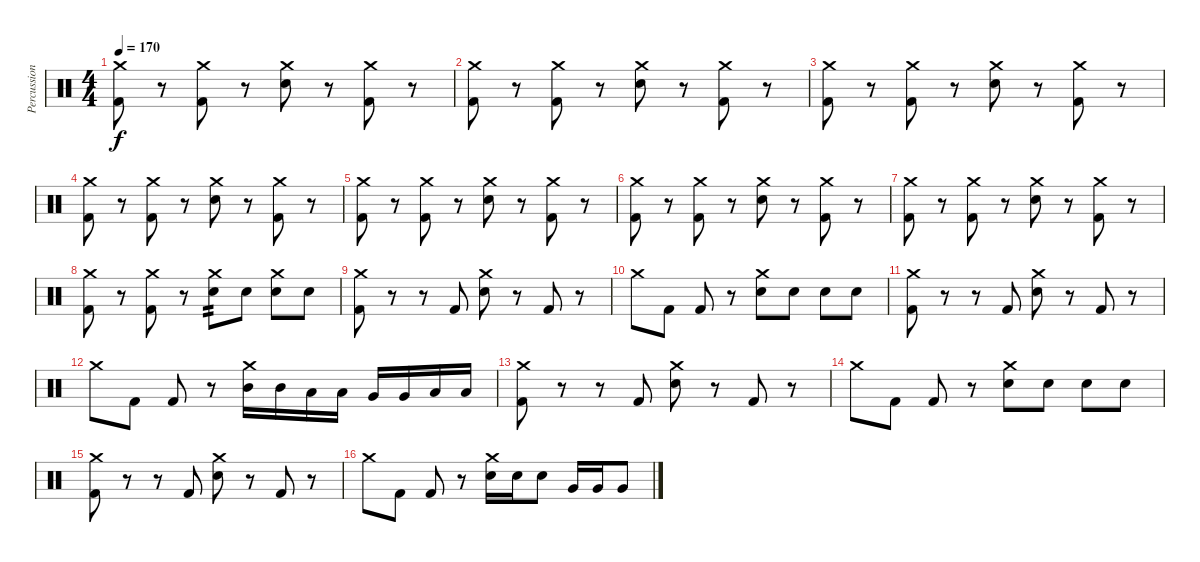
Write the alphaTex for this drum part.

\track ("Percussion" "Percussion") {instrument percussion}
\staff {score}
\articulation defaults
\ts (4 4)
\tempo 170
\clef neutral
\ks c
("Crash medium (hit)" "Kick (hit) 2").8{dy f} r.8 ("Crash medium (hit)" "Kick (hit) 2").8 r.8 ("Crash medium (hit)" "Electric Snare (hit)").8 r.8 ("Crash medium (hit)" "Kick (hit) 2").8 r.8 |
("Crash medium (hit)" "Kick (hit) 2").8 r.8 ("Crash medium (hit)" "Kick (hit) 2").8 r.8 ("Crash medium (hit)" "Electric Snare (hit)").8 r.8 ("Crash medium (hit)" "Kick (hit) 2").8 r.8 |
("Crash medium (hit)" "Kick (hit) 2").8 r.8 ("Crash medium (hit)" "Kick (hit) 2").8 r.8 ("Crash medium (hit)" "Electric Snare (hit)").8 r.8 ("Crash medium (hit)" "Kick (hit) 2").8 r.8 |
("Crash medium (hit)" "Kick (hit) 2").8 r.8 ("Crash medium (hit)" "Kick (hit) 2").8 r.8 ("Crash medium (hit)" "Electric Snare (hit)").8 r.8 ("Crash medium (hit)" "Kick (hit) 2").8 r.8 |
("Crash medium (hit)" "Kick (hit) 2").8 r.8 ("Crash medium (hit)" "Kick (hit) 2").8 r.8 ("Crash medium (hit)" "Electric Snare (hit)").8 r.8 ("Crash medium (hit)" "Kick (hit) 2").8 r.8 |
("Crash medium (hit)" "Kick (hit) 2").8 r.8 ("Crash medium (hit)" "Kick (hit) 2").8 r.8 ("Crash medium (hit)" "Electric Snare (hit)").8 r.8 ("Crash medium (hit)" "Kick (hit) 2").8 r.8 |
("Crash medium (hit)" "Kick (hit) 2").8 r.8 ("Crash medium (hit)" "Kick (hit) 2").8 r.8 ("Crash medium (hit)" "Electric Snare (hit)").8 r.8 ("Crash medium (hit)" "Kick (hit) 2").8 r.8 |
("Crash medium (hit)" "Kick (hit) 2").8 r.8 ("Crash medium (hit)" "Kick (hit) 2").8 r.8 ("Crash medium (hit)" "Electric Snare (hit)").8{tp 2} "Electric Snare (hit)".8 ("Crash medium (hit)" "Electric Snare (hit)").8 "Electric Snare (hit)".8 |
("Crash medium (hit)" "Kick (hit) 2").8 r.8 r.8 "Kick (hit) 2".8 ("Crash medium (hit)" "Electric Snare (hit)").8 r.8 "Kick (hit) 2".8 r.8 |
"Crash medium (hit)".8 "Kick (hit) 2".8 "Kick (hit) 2".8 r.8 ("Crash medium (hit)" "Electric Snare (hit)").8 "Electric Snare (hit)".8 "Electric Snare (hit)".8 "Electric Snare (hit)".8 |
("Crash medium (hit)" "Kick (hit) 2").8 r.8 r.8 "Kick (hit) 2".8 ("Crash medium (hit)" "Electric Snare (hit)").8 r.8 "Kick (hit) 2".8 r.8 |
"Crash medium (hit)".8 "Kick (hit) 2".8 "Kick (hit) 2".8 r.8 ("Crash medium (hit)" "Mid Tom (hit)").16 "Mid Tom (hit)".16 "Low Tom (hit)".16 "Low Tom (hit)".16 "Very Low Tom (hit)".16 "Very Low Tom (hit)".16 "Low Floor Tom (hit)".16 "Low Floor Tom (hit)".16 |
("Crash medium (hit)" "Kick (hit) 2").8 r.8 r.8 "Kick (hit) 2".8 ("Crash medium (hit)" "Electric Snare (hit)").8 r.8 "Kick (hit) 2".8 r.8 |
"Crash medium (hit)".8 "Kick (hit) 2".8 "Kick (hit) 2".8 r.8 ("Crash medium (hit)" "Electric Snare (hit)").8 "Electric Snare (hit)".8 "Electric Snare (hit)".8 "Electric Snare (hit)".8 |
("Crash medium (hit)" "Kick (hit) 2").8 r.8 r.8 "Kick (hit) 2".8 ("Crash medium (hit)" "Electric Snare (hit)").8 r.8 "Kick (hit) 2".8 r.8 |
"Crash medium (hit)".8 "Kick (hit) 2".8 "Kick (hit) 2".8 r.8 ("Crash medium (hit)" "Electric Snare (hit)").16 "Electric Snare (hit)".16 "Electric Snare (hit)".8 "Very Low Tom (hit)".16 "Very Low Tom (hit)".16 "Very Low Tom (hit)".8
